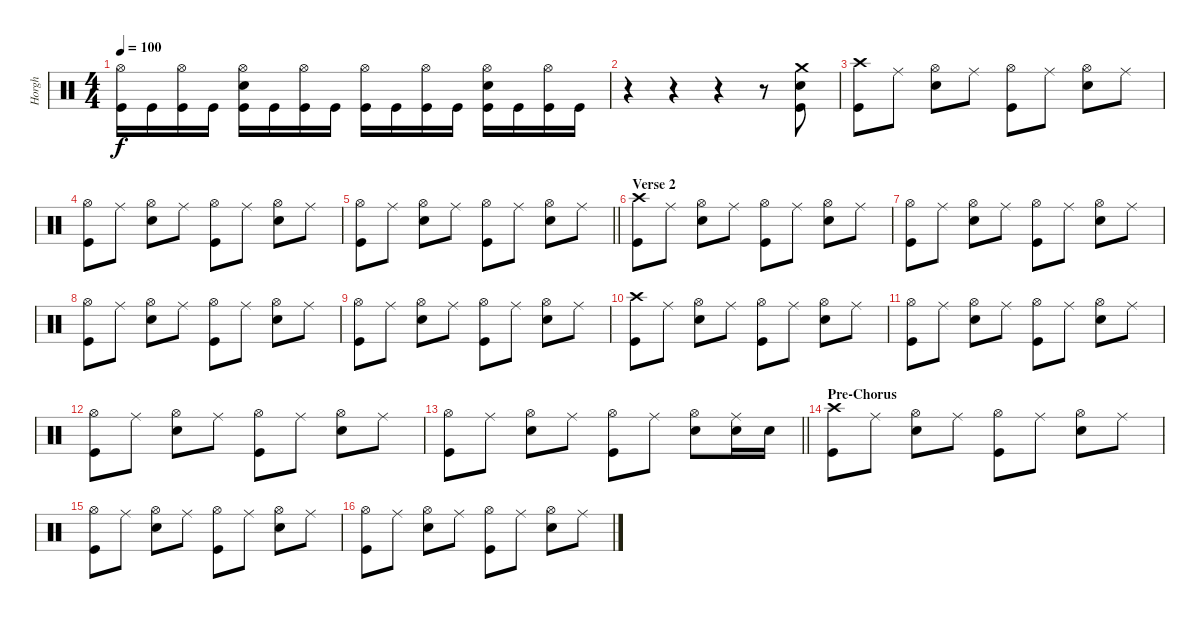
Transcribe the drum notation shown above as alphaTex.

\track ("Horgh" "Horgh") {instrument percussion}
\staff {score}
\articulation defaults
\ts (4 4)
\tempo 100
\clef neutral
\ks c
("Hi-Hat (open)" "Kick (hit)").16{dy f} "Kick (hit)".16 ("Hi-Hat (open)" "Kick (hit)").16 "Kick (hit)".16 ("Hi-Hat (open)" "Electric Snare (hit)" "Kick (hit)").16 "Kick (hit)".16 ("Hi-Hat (open)" "Kick (hit)").16 "Kick (hit)".16 ("Hi-Hat (open)" "Kick (hit)").16 "Kick (hit)".16 ("Hi-Hat (open)" "Kick (hit)").16 "Kick (hit)".16 ("Hi-Hat (open)" "Electric Snare (hit)" "Kick (hit)").16 "Kick (hit)".16 ("Hi-Hat (open)" "Kick (hit)").16 "Kick (hit)".16 |
r.4 r.4 r.4 r.8 ("Crash medium (hit)" "Electric Snare (hit)" "Kick (hit)").8 |
("Crash high (hit)" "Kick (hit)").8 "Ride (middle)".8 ("Hi-Hat (open)" "Electric Snare (hit)").8 "Ride (middle)".8 ("Hi-Hat (open)" "Kick (hit)").8 "Ride (middle)".8 ("Hi-Hat (open)" "Electric Snare (hit)").8 "Ride (middle)".8 |
("Hi-Hat (open)" "Kick (hit)").8 "Ride (middle)".8 ("Hi-Hat (open)" "Electric Snare (hit)").8 "Ride (middle)".8 ("Hi-Hat (open)" "Kick (hit)").8 "Ride (middle)".8 ("Hi-Hat (open)" "Electric Snare (hit)").8 "Ride (middle)".8 |
\barLineRight lightlight
("Hi-Hat (open)" "Kick (hit)").8 "Ride (middle)".8 ("Hi-Hat (open)" "Electric Snare (hit)").8 "Ride (middle)".8 ("Hi-Hat (open)" "Kick (hit)").8 "Ride (middle)".8 ("Hi-Hat (open)" "Electric Snare (hit)").8 "Ride (middle)".8 |
\section ("" "Verse 2")
("Crash high (hit)" "Kick (hit)").8 "Ride (middle)".8 ("Hi-Hat (open)" "Electric Snare (hit)").8 "Ride (middle)".8 ("Hi-Hat (open)" "Kick (hit)").8 "Ride (middle)".8 ("Hi-Hat (open)" "Electric Snare (hit)").8 "Ride (middle)".8 |
("Hi-Hat (open)" "Kick (hit)").8 "Ride (middle)".8 ("Hi-Hat (open)" "Electric Snare (hit)").8 "Ride (middle)".8 ("Hi-Hat (open)" "Kick (hit)").8 "Ride (middle)".8 ("Hi-Hat (open)" "Electric Snare (hit)").8 "Ride (middle)".8 |
("Hi-Hat (open)" "Kick (hit)").8 "Ride (middle)".8 ("Hi-Hat (open)" "Electric Snare (hit)").8 "Ride (middle)".8 ("Hi-Hat (open)" "Kick (hit)").8 "Ride (middle)".8 ("Hi-Hat (open)" "Electric Snare (hit)").8 "Ride (middle)".8 |
("Hi-Hat (open)" "Kick (hit)").8 "Ride (middle)".8 ("Hi-Hat (open)" "Electric Snare (hit)").8 "Ride (middle)".8 ("Hi-Hat (open)" "Kick (hit)").8 "Ride (middle)".8 ("Hi-Hat (open)" "Electric Snare (hit)").8 "Ride (middle)".8 |
("Crash high (hit)" "Kick (hit)").8 "Ride (middle)".8 ("Hi-Hat (open)" "Electric Snare (hit)").8 "Ride (middle)".8 ("Hi-Hat (open)" "Kick (hit)").8 "Ride (middle)".8 ("Hi-Hat (open)" "Electric Snare (hit)").8 "Ride (middle)".8 |
("Hi-Hat (open)" "Kick (hit)").8 "Ride (middle)".8 ("Hi-Hat (open)" "Electric Snare (hit)").8 "Ride (middle)".8 ("Hi-Hat (open)" "Kick (hit)").8 "Ride (middle)".8 ("Hi-Hat (open)" "Electric Snare (hit)").8 "Ride (middle)".8 |
("Hi-Hat (open)" "Kick (hit)").8 "Ride (middle)".8 ("Hi-Hat (open)" "Electric Snare (hit)").8 "Ride (middle)".8 ("Hi-Hat (open)" "Kick (hit)").8 "Ride (middle)".8 ("Hi-Hat (open)" "Electric Snare (hit)").8 "Ride (middle)".8 |
\barLineRight lightlight
("Hi-Hat (open)" "Kick (hit)").8 "Ride (middle)".8 ("Hi-Hat (open)" "Electric Snare (hit)").8 "Ride (middle)".8 ("Hi-Hat (open)" "Kick (hit)").8 "Ride (middle)".8 ("Hi-Hat (open)" "Electric Snare (hit)").8 ("Ride (middle)" "Electric Snare (hit)").16 "Electric Snare (hit)".16 |
\section ("" "Pre-Chorus")
("Crash high (hit)" "Kick (hit)").8 "Ride (middle)".8 ("Hi-Hat (open)" "Electric Snare (hit)").8 "Ride (middle)".8 ("Hi-Hat (open)" "Kick (hit)").8 "Ride (middle)".8 ("Hi-Hat (open)" "Electric Snare (hit)").8 "Ride (middle)".8 |
("Hi-Hat (open)" "Kick (hit)").8 "Ride (middle)".8 ("Hi-Hat (open)" "Electric Snare (hit)").8 "Ride (middle)".8 ("Hi-Hat (open)" "Kick (hit)").8 "Ride (middle)".8 ("Hi-Hat (open)" "Electric Snare (hit)").8 "Ride (middle)".8 |
("Hi-Hat (open)" "Kick (hit)").8 "Ride (middle)".8 ("Hi-Hat (open)" "Electric Snare (hit)").8 "Ride (middle)".8 ("Hi-Hat (open)" "Kick (hit)").8 "Ride (middle)".8 ("Hi-Hat (open)" "Electric Snare (hit)").8 "Ride (middle)".8
